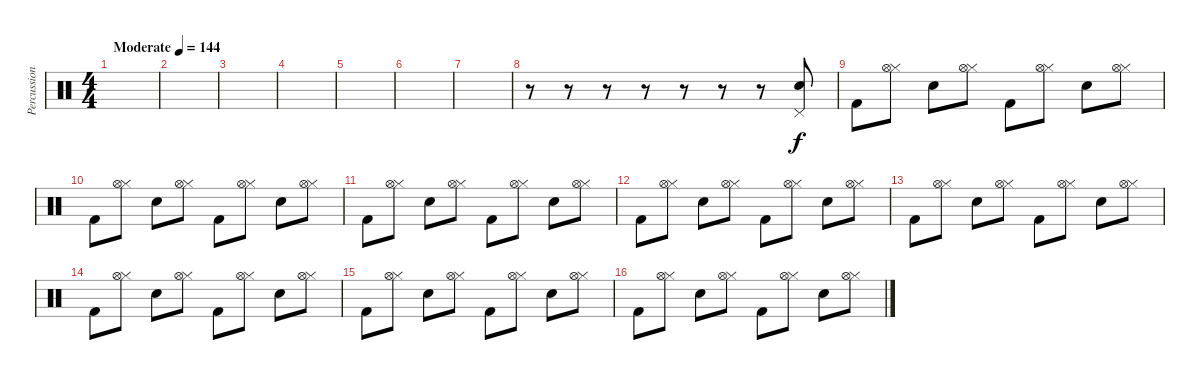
\track ("Percussion" "Percussion") {instrument percussion}
\staff {score}
\articulation defaults
\ts (4 4)
\tempo (144 "Moderate")
\clef neutral
\ks c
|
|
|
|
|
|
|
r.8 r.8 r.8 r.8 r.8 r.8 r.8 ("Electric Snare (hit)" "Pedal Hi-Hat (hit)").8 |
"Kick (hit) 2".8 ("Hi-Hat (closed)" "Hi-Hat (open)").8 "Electric Snare (hit)".8 ("Hi-Hat (closed)" "Hi-Hat (open)").8 "Kick (hit) 2".8 ("Hi-Hat (closed)" "Hi-Hat (open)").8 "Electric Snare (hit)".8 ("Hi-Hat (closed)" "Hi-Hat (open)").8 |
"Kick (hit) 2".8 ("Hi-Hat (closed)" "Hi-Hat (open)").8 "Electric Snare (hit)".8 ("Hi-Hat (closed)" "Hi-Hat (open)").8 "Kick (hit) 2".8 ("Hi-Hat (closed)" "Hi-Hat (open)").8 "Electric Snare (hit)".8 ("Hi-Hat (closed)" "Hi-Hat (open)").8 |
"Kick (hit) 2".8 ("Hi-Hat (closed)" "Hi-Hat (open)").8 "Electric Snare (hit)".8 ("Hi-Hat (closed)" "Hi-Hat (open)").8 "Kick (hit) 2".8 ("Hi-Hat (closed)" "Hi-Hat (open)").8 "Electric Snare (hit)".8 ("Hi-Hat (closed)" "Hi-Hat (open)").8 |
"Kick (hit) 2".8 ("Hi-Hat (closed)" "Hi-Hat (open)").8 "Electric Snare (hit)".8 ("Hi-Hat (closed)" "Hi-Hat (open)").8 "Kick (hit) 2".8 ("Hi-Hat (closed)" "Hi-Hat (open)").8 "Electric Snare (hit)".8 ("Hi-Hat (closed)" "Hi-Hat (open)").8 |
"Kick (hit) 2".8 ("Hi-Hat (closed)" "Hi-Hat (open)").8 "Electric Snare (hit)".8 ("Hi-Hat (closed)" "Hi-Hat (open)").8 "Kick (hit) 2".8 ("Hi-Hat (closed)" "Hi-Hat (open)").8 "Electric Snare (hit)".8 ("Hi-Hat (closed)" "Hi-Hat (open)").8 |
"Kick (hit) 2".8 ("Hi-Hat (closed)" "Hi-Hat (open)").8 "Electric Snare (hit)".8 ("Hi-Hat (closed)" "Hi-Hat (open)").8 "Kick (hit) 2".8 ("Hi-Hat (closed)" "Hi-Hat (open)").8 "Electric Snare (hit)".8 ("Hi-Hat (closed)" "Hi-Hat (open)").8 |
"Kick (hit) 2".8 ("Hi-Hat (closed)" "Hi-Hat (open)").8 "Electric Snare (hit)".8 ("Hi-Hat (closed)" "Hi-Hat (open)").8 "Kick (hit) 2".8 ("Hi-Hat (closed)" "Hi-Hat (open)").8 "Electric Snare (hit)".8 ("Hi-Hat (closed)" "Hi-Hat (open)").8 |
"Kick (hit) 2".8 ("Hi-Hat (closed)" "Hi-Hat (open)").8 "Electric Snare (hit)".8 ("Hi-Hat (closed)" "Hi-Hat (open)").8 "Kick (hit) 2".8 ("Hi-Hat (closed)" "Hi-Hat (open)").8 "Electric Snare (hit)".8 ("Hi-Hat (closed)" "Hi-Hat (open)").8
